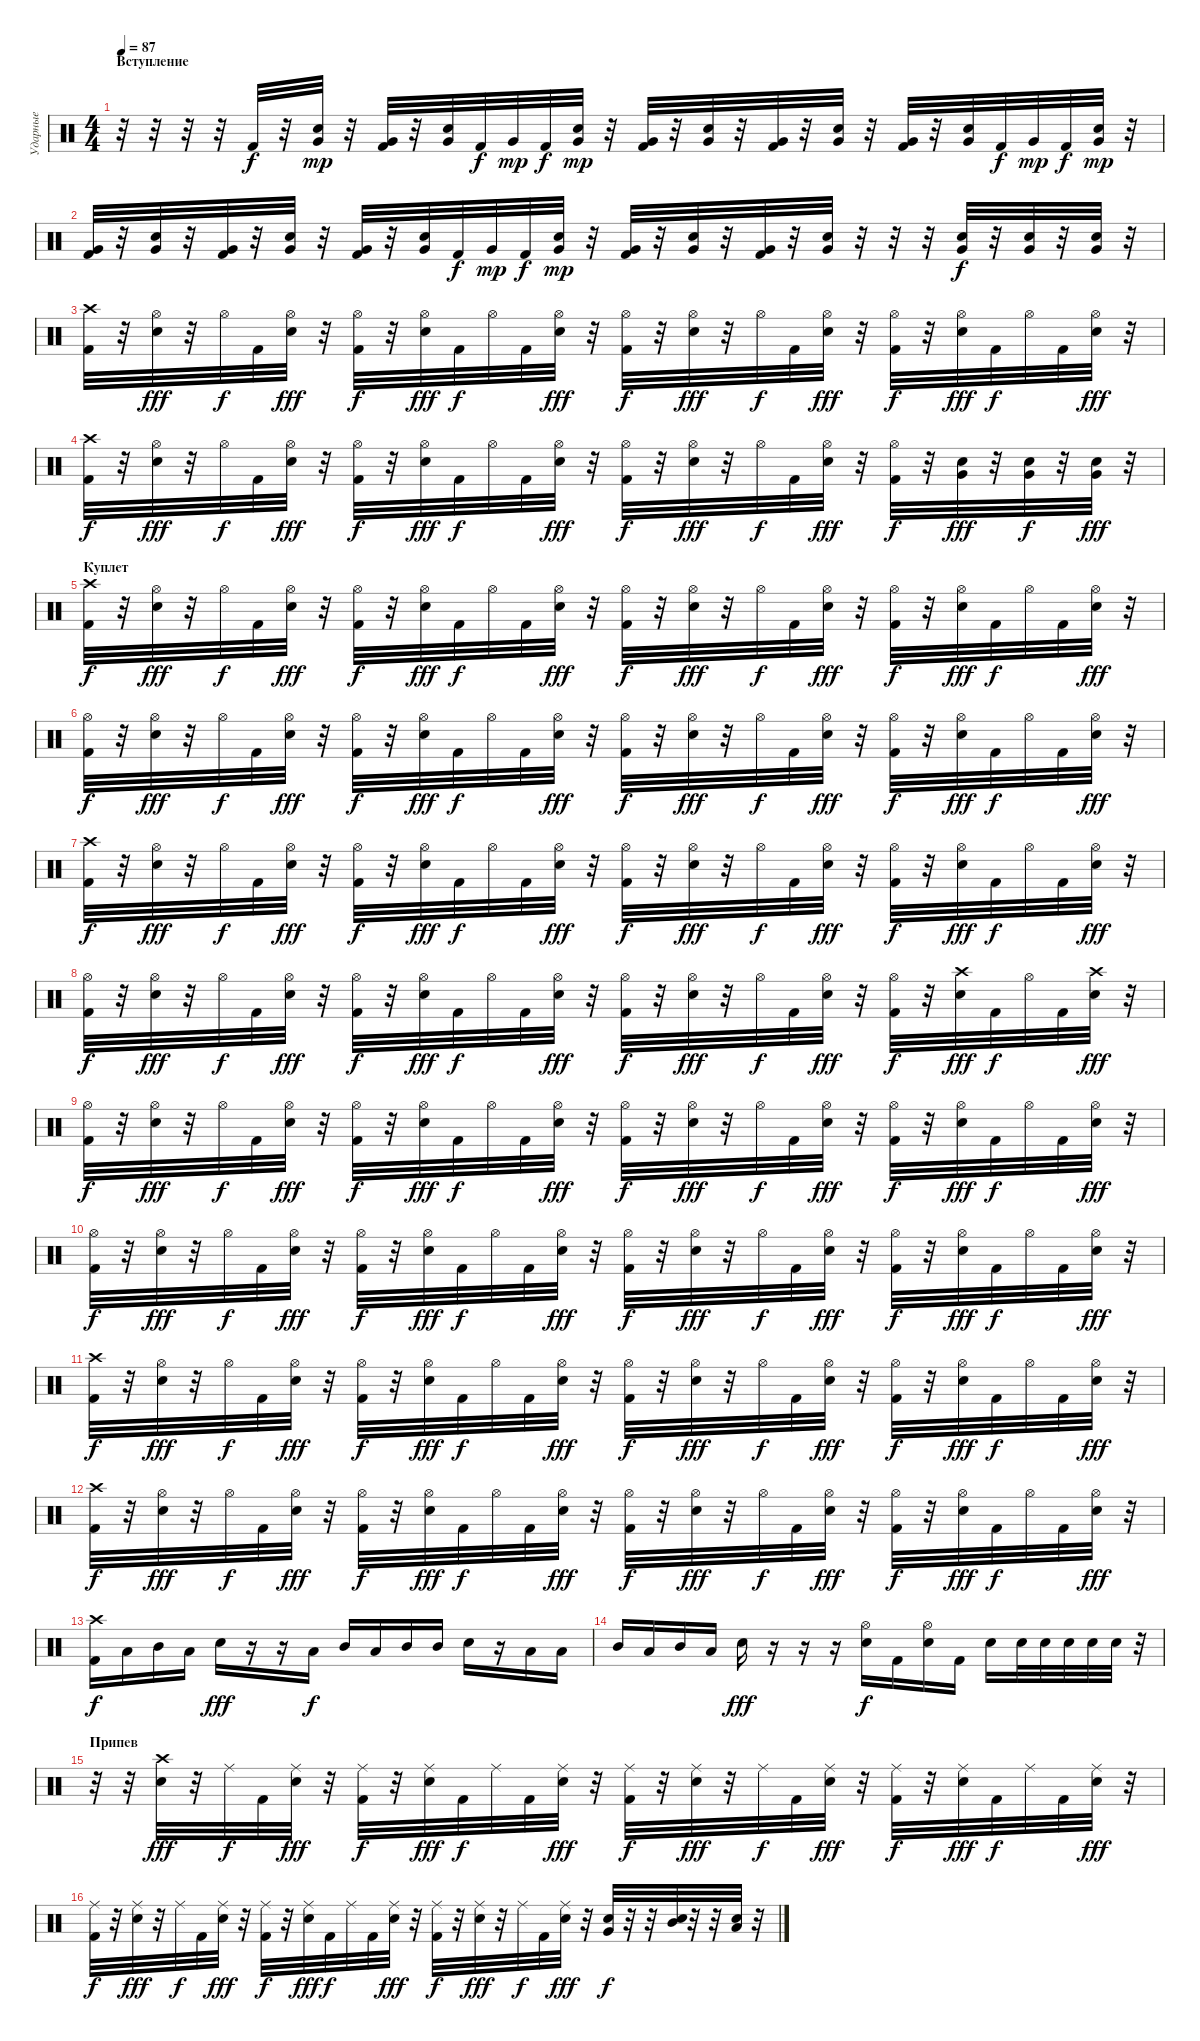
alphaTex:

\track ("Ударные" "Ударные") {instrument percussion}
\staff {score}
\articulation defaults
\ts (4 4)
\section ("" "Вступление")
\tempo 87
\clef neutral
\ks c
r.32{dy f} r.32 r.32 r.32 "Kick (hit) 2".32 r.32 ("Very Low Tom (hit)" "Snare (hit) 2").32{dy mp} r.32 ("Very Low Tom (hit)" "Kick (hit) 2").32 r.32 ("Very Low Tom (hit)" "Snare (hit) 2").32 "Kick (hit) 2".32{dy f} "Very Low Tom (hit)".32{dy mp} "Kick (hit) 2".32{dy f} ("Very Low Tom (hit)" "Snare (hit) 2").32{dy mp} r.32 ("Very Low Tom (hit)" "Kick (hit) 2").32 r.32 ("Very Low Tom (hit)" "Snare (hit) 2").32 r.32 ("Very Low Tom (hit)" "Kick (hit) 2").32 r.32 ("Very Low Tom (hit)" "Snare (hit) 2").32 r.32 ("Very Low Tom (hit)" "Kick (hit) 2").32 r.32 ("Very Low Tom (hit)" "Snare (hit) 2").32 "Kick (hit) 2".32{dy f} "Very Low Tom (hit)".32{dy mp} "Kick (hit) 2".32{dy f} ("Very Low Tom (hit)" "Snare (hit) 2").32{dy mp} r.32 |
("Very Low Tom (hit)" "Kick (hit) 2").32 r.32 ("Very Low Tom (hit)" "Snare (hit) 2").32 r.32 ("Very Low Tom (hit)" "Kick (hit) 2").32 r.32 ("Very Low Tom (hit)" "Snare (hit) 2").32 r.32 ("Very Low Tom (hit)" "Kick (hit) 2").32 r.32 ("Very Low Tom (hit)" "Snare (hit) 2").32 "Kick (hit) 2".32{dy f} "Very Low Tom (hit)".32{dy mp} "Kick (hit) 2".32{dy f} ("Very Low Tom (hit)" "Snare (hit) 2").32{dy mp} r.32 ("Very Low Tom (hit)" "Kick (hit) 2").32 r.32 ("Very Low Tom (hit)" "Snare (hit) 2").32 r.32 ("Very Low Tom (hit)" "Kick (hit) 2").32 r.32 ("Very Low Tom (hit)" "Snare (hit) 2").32 r.32 r.32 r.32 ("Very Low Tom (hit)" "Snare (hit) 2").32{dy f} r.32 ("Very Low Tom (hit)" "Snare (hit) 2").32 r.32 ("Very Low Tom (hit)" "Snare (hit) 2").32 r.32 |
("Crash high (hit)" "Kick (hit) 2").32 r.32 ("Hi-Hat (open)" "Snare (hit) 2").32{dy fff} r.32 "Hi-Hat (open)".32{dy f} "Kick (hit) 2".32 ("Hi-Hat (open)" "Snare (hit) 2").32{dy fff} r.32 ("Hi-Hat (open)" "Kick (hit) 2").32{dy f} r.32 ("Hi-Hat (open)" "Snare (hit) 2").32{dy fff} "Kick (hit) 2".32{dy f} "Hi-Hat (open)".32 "Kick (hit) 2".32 ("Hi-Hat (open)" "Snare (hit) 2").32{dy fff} r.32 ("Hi-Hat (open)" "Kick (hit) 2").32{dy f} r.32 ("Hi-Hat (open)" "Snare (hit) 2").32{dy fff} r.32 "Hi-Hat (open)".32{dy f} "Kick (hit) 2".32 ("Hi-Hat (open)" "Snare (hit) 2").32{dy fff} r.32 ("Hi-Hat (open)" "Kick (hit) 2").32{dy f} r.32 ("Hi-Hat (open)" "Snare (hit) 2").32{dy fff} "Kick (hit) 2".32{dy f} "Hi-Hat (open)".32 "Kick (hit) 2".32 ("Hi-Hat (open)" "Snare (hit) 2").32{dy fff} r.32 |
("Crash high (hit)" "Kick (hit) 2").32{dy f} r.32 ("Hi-Hat (open)" "Snare (hit) 2").32{dy fff} r.32 "Hi-Hat (open)".32{dy f} "Kick (hit) 2".32 ("Hi-Hat (open)" "Snare (hit) 2").32{dy fff} r.32 ("Hi-Hat (open)" "Kick (hit) 2").32{dy f} r.32 ("Hi-Hat (open)" "Snare (hit) 2").32{dy fff} "Kick (hit) 2".32{dy f} "Hi-Hat (open)".32 "Kick (hit) 2".32 ("Hi-Hat (open)" "Snare (hit) 2").32{dy fff} r.32 ("Hi-Hat (open)" "Kick (hit) 2").32{dy f} r.32 ("Hi-Hat (open)" "Snare (hit) 2").32{dy fff} r.32 "Hi-Hat (open)".32{dy f} "Kick (hit) 2".32 ("Hi-Hat (open)" "Snare (hit) 2").32{dy fff} r.32 ("Hi-Hat (open)" "Kick (hit) 2").32{dy f} r.32 ("Very Low Tom (hit)" "Snare (hit) 2").32{dy fff} r.32 ("Very Low Tom (hit)" "Snare (hit) 2").32{dy f} r.32 ("Very Low Tom (hit)" "Snare (hit) 2").32{dy fff} r.32 |
\section ("" "Куплет")
("Crash high (hit)" "Kick (hit) 2").32{dy f} r.32 ("Hi-Hat (open)" "Snare (hit) 2").32{dy fff} r.32 "Hi-Hat (open)".32{dy f} "Kick (hit) 2".32 ("Hi-Hat (open)" "Snare (hit) 2").32{dy fff} r.32 ("Hi-Hat (open)" "Kick (hit) 2").32{dy f} r.32 ("Hi-Hat (open)" "Snare (hit) 2").32{dy fff} "Kick (hit) 2".32{dy f} "Hi-Hat (open)".32 "Kick (hit) 2".32 ("Hi-Hat (open)" "Snare (hit) 2").32{dy fff} r.32 ("Hi-Hat (open)" "Kick (hit) 2").32{dy f} r.32 ("Hi-Hat (open)" "Snare (hit) 2").32{dy fff} r.32 "Hi-Hat (open)".32{dy f} "Kick (hit) 2".32 ("Hi-Hat (open)" "Snare (hit) 2").32{dy fff} r.32 ("Hi-Hat (open)" "Kick (hit) 2").32{dy f} r.32 ("Hi-Hat (open)" "Snare (hit) 2").32{dy fff} "Kick (hit) 2".32{dy f} "Hi-Hat (open)".32 "Kick (hit) 2".32 ("Hi-Hat (open)" "Snare (hit) 2").32{dy fff} r.32 |
("Hi-Hat (open)" "Kick (hit) 2").32{dy f} r.32 ("Hi-Hat (open)" "Snare (hit) 2").32{dy fff} r.32 "Hi-Hat (open)".32{dy f} "Kick (hit) 2".32 ("Hi-Hat (open)" "Snare (hit) 2").32{dy fff} r.32 ("Hi-Hat (open)" "Kick (hit) 2").32{dy f} r.32 ("Hi-Hat (open)" "Snare (hit) 2").32{dy fff} "Kick (hit) 2".32{dy f} "Hi-Hat (open)".32 "Kick (hit) 2".32 ("Hi-Hat (open)" "Snare (hit) 2").32{dy fff} r.32 ("Hi-Hat (open)" "Kick (hit) 2").32{dy f} r.32 ("Hi-Hat (open)" "Snare (hit) 2").32{dy fff} r.32 "Hi-Hat (open)".32{dy f} "Kick (hit) 2".32 ("Hi-Hat (open)" "Snare (hit) 2").32{dy fff} r.32 ("Hi-Hat (open)" "Kick (hit) 2").32{dy f} r.32 ("Hi-Hat (open)" "Snare (hit) 2").32{dy fff} "Kick (hit) 2".32{dy f} "Hi-Hat (open)".32 "Kick (hit) 2".32 ("Hi-Hat (open)" "Snare (hit) 2").32{dy fff} r.32 |
("Crash high (hit)" "Kick (hit) 2").32{dy f} r.32 ("Hi-Hat (open)" "Snare (hit) 2").32{dy fff} r.32 "Hi-Hat (open)".32{dy f} "Kick (hit) 2".32 ("Hi-Hat (open)" "Snare (hit) 2").32{dy fff} r.32 ("Hi-Hat (open)" "Kick (hit) 2").32{dy f} r.32 ("Hi-Hat (open)" "Snare (hit) 2").32{dy fff} "Kick (hit) 2".32{dy f} "Hi-Hat (open)".32 "Kick (hit) 2".32 ("Hi-Hat (open)" "Snare (hit) 2").32{dy fff} r.32 ("Hi-Hat (open)" "Kick (hit) 2").32{dy f} r.32 ("Hi-Hat (open)" "Snare (hit) 2").32{dy fff} r.32 "Hi-Hat (open)".32{dy f} "Kick (hit) 2".32 ("Hi-Hat (open)" "Snare (hit) 2").32{dy fff} r.32 ("Hi-Hat (open)" "Kick (hit) 2").32{dy f} r.32 ("Hi-Hat (open)" "Snare (hit) 2").32{dy fff} "Kick (hit) 2".32{dy f} "Hi-Hat (open)".32 "Kick (hit) 2".32 ("Hi-Hat (open)" "Snare (hit) 2").32{dy fff} r.32 |
("Hi-Hat (open)" "Kick (hit) 2").32{dy f} r.32 ("Hi-Hat (open)" "Snare (hit) 2").32{dy fff} r.32 "Hi-Hat (open)".32{dy f} "Kick (hit) 2".32 ("Hi-Hat (open)" "Snare (hit) 2").32{dy fff} r.32 ("Hi-Hat (open)" "Kick (hit) 2").32{dy f} r.32 ("Hi-Hat (open)" "Snare (hit) 2").32{dy fff} "Kick (hit) 2".32{dy f} "Hi-Hat (open)".32 "Kick (hit) 2".32 ("Hi-Hat (open)" "Snare (hit) 2").32{dy fff} r.32 ("Hi-Hat (open)" "Kick (hit) 2").32{dy f} r.32 ("Hi-Hat (open)" "Snare (hit) 2").32{dy fff} r.32 "Hi-Hat (open)".32{dy f} "Kick (hit) 2".32 ("Hi-Hat (open)" "Snare (hit) 2").32{dy fff} r.32 ("Hi-Hat (open)" "Kick (hit) 2").32{dy f} r.32 ("Crash high (hit)" "Snare (hit) 2").32{dy fff} "Kick (hit) 2".32{dy f} "Hi-Hat (open)".32 "Kick (hit) 2".32 ("Crash high (hit)" "Snare (hit) 2").32{dy fff} r.32 |
("Hi-Hat (open)" "Kick (hit) 2").32{dy f} r.32 ("Hi-Hat (open)" "Snare (hit) 2").32{dy fff} r.32 "Hi-Hat (open)".32{dy f} "Kick (hit) 2".32 ("Hi-Hat (open)" "Snare (hit) 2").32{dy fff} r.32 ("Hi-Hat (open)" "Kick (hit) 2").32{dy f} r.32 ("Hi-Hat (open)" "Snare (hit) 2").32{dy fff} "Kick (hit) 2".32{dy f} "Hi-Hat (open)".32 "Kick (hit) 2".32 ("Hi-Hat (open)" "Snare (hit) 2").32{dy fff} r.32 ("Hi-Hat (open)" "Kick (hit) 2").32{dy f} r.32 ("Hi-Hat (open)" "Snare (hit) 2").32{dy fff} r.32 "Hi-Hat (open)".32{dy f} "Kick (hit) 2".32 ("Hi-Hat (open)" "Snare (hit) 2").32{dy fff} r.32 ("Hi-Hat (open)" "Kick (hit) 2").32{dy f} r.32 ("Hi-Hat (open)" "Snare (hit) 2").32{dy fff} "Kick (hit) 2".32{dy f} "Hi-Hat (open)".32 "Kick (hit) 2".32 ("Hi-Hat (open)" "Snare (hit) 2").32{dy fff} r.32 |
("Hi-Hat (open)" "Kick (hit) 2").32{dy f} r.32 ("Hi-Hat (open)" "Snare (hit) 2").32{dy fff} r.32 "Hi-Hat (open)".32{dy f} "Kick (hit) 2".32 ("Hi-Hat (open)" "Snare (hit) 2").32{dy fff} r.32 ("Hi-Hat (open)" "Kick (hit) 2").32{dy f} r.32 ("Hi-Hat (open)" "Snare (hit) 2").32{dy fff} "Kick (hit) 2".32{dy f} "Hi-Hat (open)".32 "Kick (hit) 2".32 ("Hi-Hat (open)" "Snare (hit) 2").32{dy fff} r.32 ("Hi-Hat (open)" "Kick (hit) 2").32{dy f} r.32 ("Hi-Hat (open)" "Snare (hit) 2").32{dy fff} r.32 "Hi-Hat (open)".32{dy f} "Kick (hit) 2".32 ("Hi-Hat (open)" "Snare (hit) 2").32{dy fff} r.32 ("Hi-Hat (open)" "Kick (hit) 2").32{dy f} r.32 ("Hi-Hat (open)" "Snare (hit) 2").32{dy fff} "Kick (hit) 2".32{dy f} "Hi-Hat (open)".32 "Kick (hit) 2".32 ("Hi-Hat (open)" "Snare (hit) 2").32{dy fff} r.32 |
("Crash high (hit)" "Kick (hit) 2").32{dy f} r.32 ("Hi-Hat (open)" "Snare (hit) 2").32{dy fff} r.32 "Hi-Hat (open)".32{dy f} "Kick (hit) 2".32 ("Hi-Hat (open)" "Snare (hit) 2").32{dy fff} r.32 ("Hi-Hat (open)" "Kick (hit) 2").32{dy f} r.32 ("Hi-Hat (open)" "Snare (hit) 2").32{dy fff} "Kick (hit) 2".32{dy f} "Hi-Hat (open)".32 "Kick (hit) 2".32 ("Hi-Hat (open)" "Snare (hit) 2").32{dy fff} r.32 ("Hi-Hat (open)" "Kick (hit) 2").32{dy f} r.32 ("Hi-Hat (open)" "Snare (hit) 2").32{dy fff} r.32 "Hi-Hat (open)".32{dy f} "Kick (hit) 2".32 ("Hi-Hat (open)" "Snare (hit) 2").32{dy fff} r.32 ("Hi-Hat (open)" "Kick (hit) 2").32{dy f} r.32 ("Hi-Hat (open)" "Snare (hit) 2").32{dy fff} "Kick (hit) 2".32{dy f} "Hi-Hat (open)".32 "Kick (hit) 2".32 ("Hi-Hat (open)" "Snare (hit) 2").32{dy fff} r.32 |
("Crash high (hit)" "Kick (hit) 2").32{dy f} r.32 ("Hi-Hat (open)" "Snare (hit) 2").32{dy fff} r.32 "Hi-Hat (open)".32{dy f} "Kick (hit) 2".32 ("Hi-Hat (open)" "Snare (hit) 2").32{dy fff} r.32 ("Hi-Hat (open)" "Kick (hit) 2").32{dy f} r.32 ("Hi-Hat (open)" "Snare (hit) 2").32{dy fff} "Kick (hit) 2".32{dy f} "Hi-Hat (open)".32 "Kick (hit) 2".32 ("Hi-Hat (open)" "Snare (hit) 2").32{dy fff} r.32 ("Hi-Hat (open)" "Kick (hit) 2").32{dy f} r.32 ("Hi-Hat (open)" "Snare (hit) 2").32{dy fff} r.32 "Hi-Hat (open)".32{dy f} "Kick (hit) 2".32 ("Hi-Hat (open)" "Snare (hit) 2").32{dy fff} r.32 ("Hi-Hat (open)" "Kick (hit) 2").32{dy f} r.32 ("Hi-Hat (open)" "Snare (hit) 2").32{dy fff} "Kick (hit) 2".32{dy f} "Hi-Hat (open)".32 "Kick (hit) 2".32 ("Hi-Hat (open)" "Snare (hit) 2").32{dy fff} r.32 |
\section ("" "")
("Crash high (hit)" "Kick (hit) 2").16{dy f} "Low Tom (hit)".16 "Mid Tom (hit)".16 "Low Tom (hit)".16 "Snare (hit) 2".16{dy fff} r.16 r.16 "Low Tom (hit)".16{dy f} "Mid Tom (hit)".16 "Low Tom (hit)".16 "Mid Tom (hit)".16 "Mid Tom (hit)".16 "Snare (hit) 2".16 r.16 "Low Tom (hit)".16 "Low Tom (hit)".16 |
"Mid Tom (hit)".16 "Low Tom (hit)".16 "Mid Tom (hit)".16 "Low Tom (hit)".16 "Snare (hit) 2".16{dy fff} r.16 r.16 r.16 ("Snare (hit) 2" "Hi-Hat (open)").16{dy f} "Kick (hit) 2".16 ("Snare (hit) 2" "Hi-Hat (open)").16 "Kick (hit) 2".16 "Snare (hit) 2".16 "Snare (hit) 2".32 "Snare (hit) 2".32 "Snare (hit) 2".32 "Snare (hit) 2".32 "Snare (hit) 2".32 r.32 |
\section ("" "Припев")
r.32 r.32 ("Crash high (hit)" "Snare (hit) 2").32{dy fff} r.32 "Ride (middle)".32{dy f} "Kick (hit) 2".32 ("Ride (middle)" "Snare (hit) 2").32{dy fff} r.32 ("Ride (middle)" "Kick (hit) 2").32{dy f} r.32 ("Ride (middle)" "Snare (hit) 2").32{dy fff} "Kick (hit) 2".32{dy f} "Ride (middle)".32 "Kick (hit) 2".32 ("Ride (middle)" "Snare (hit) 2").32{dy fff} r.32 ("Ride (middle)" "Kick (hit) 2").32{dy f} r.32 ("Ride (middle)" "Snare (hit) 2").32{dy fff} r.32 "Ride (middle)".32{dy f} "Kick (hit) 2".32 ("Ride (middle)" "Snare (hit) 2").32{dy fff} r.32 ("Ride (middle)" "Kick (hit) 2").32{dy f} r.32 ("Ride (middle)" "Snare (hit) 2").32{dy fff} "Kick (hit) 2".32{dy f} "Ride (middle)".32 "Kick (hit) 2".32 ("Ride (middle)" "Snare (hit) 2").32{dy fff} r.32 |
("Ride (middle)" "Kick (hit) 2").32{dy f} r.32 ("Ride (middle)" "Snare (hit) 2").32{dy fff} r.32 "Ride (middle)".32{dy f} "Kick (hit) 2".32 ("Ride (middle)" "Snare (hit) 2").32{dy fff} r.32 ("Ride (middle)" "Kick (hit) 2").32{dy f} r.32 ("Ride (middle)" "Snare (hit) 2").32{dy fff} "Kick (hit) 2".32{dy f} "Ride (middle)".32 "Kick (hit) 2".32 ("Ride (middle)" "Snare (hit) 2").32{dy fff} r.32 ("Ride (middle)" "Kick (hit) 2").32{dy f} r.32 ("Ride (middle)" "Snare (hit) 2").32{dy fff} r.32 "Ride (middle)".32{dy f} "Kick (hit) 2".32 ("Ride (middle)" "Snare (hit) 2").32{dy fff} r.32 ("Very Low Tom (hit)" "Snare (hit) 2").32{dy f} r.32 r.32 ("Mid Tom (hit)" "Snare (hit) 2").32 r.32 r.32 ("Low Tom (hit)" "Snare (hit) 2").32 r.32
